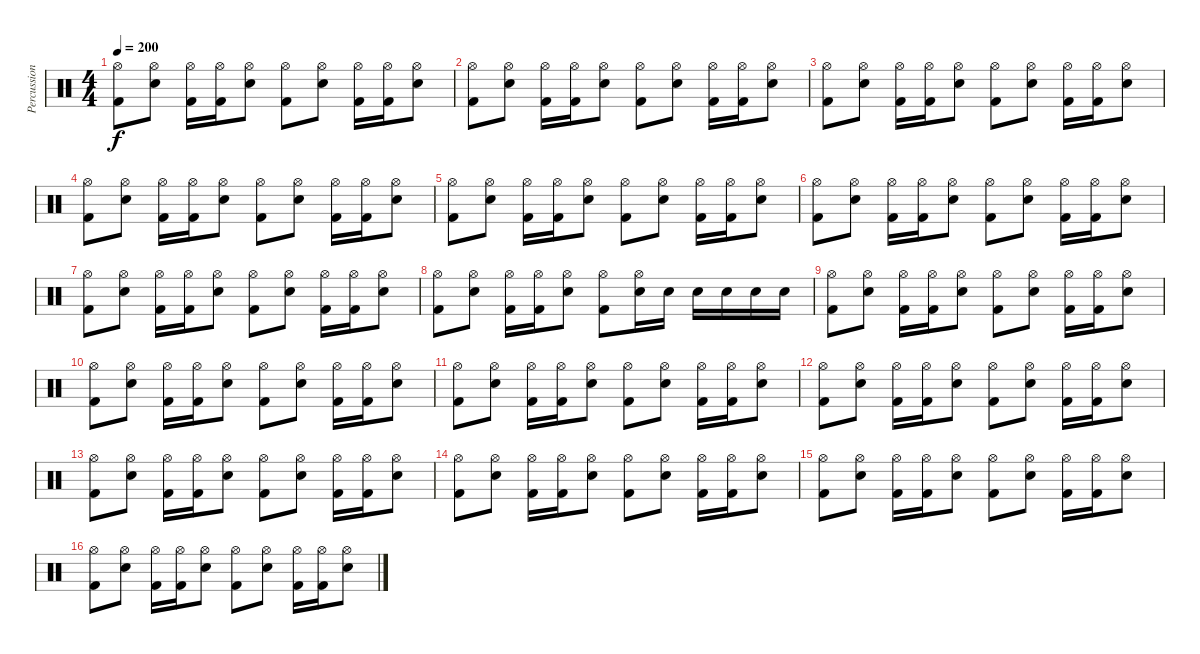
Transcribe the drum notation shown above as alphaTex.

\track ("Percussions" "Percussion") {instrument percussion}
\staff {score}
\articulation defaults
\ts (4 4)
\tempo 200
\clef neutral
\ks c
("Hi-Hat (open)" "Kick (hit) 2").8{dy f} ("Hi-Hat (open)" "Electric Snare (hit)").8 ("Hi-Hat (open)" "Kick (hit) 2").16 ("Hi-Hat (open)" "Kick (hit) 2").16 ("Hi-Hat (open)" "Electric Snare (hit)").8 ("Hi-Hat (open)" "Kick (hit) 2").8 ("Hi-Hat (open)" "Electric Snare (hit)").8 ("Hi-Hat (open)" "Kick (hit) 2").16 ("Hi-Hat (open)" "Kick (hit) 2").16 ("Hi-Hat (open)" "Electric Snare (hit)").8 |
("Hi-Hat (open)" "Kick (hit) 2").8 ("Hi-Hat (open)" "Electric Snare (hit)").8 ("Hi-Hat (open)" "Kick (hit) 2").16 ("Hi-Hat (open)" "Kick (hit) 2").16 ("Hi-Hat (open)" "Electric Snare (hit)").8 ("Hi-Hat (open)" "Kick (hit) 2").8 ("Hi-Hat (open)" "Electric Snare (hit)").8 ("Hi-Hat (open)" "Kick (hit) 2").16 ("Hi-Hat (open)" "Kick (hit) 2").16 ("Hi-Hat (open)" "Electric Snare (hit)").8 |
("Hi-Hat (open)" "Kick (hit) 2").8 ("Hi-Hat (open)" "Electric Snare (hit)").8 ("Hi-Hat (open)" "Kick (hit) 2").16 ("Hi-Hat (open)" "Kick (hit) 2").16 ("Hi-Hat (open)" "Electric Snare (hit)").8 ("Hi-Hat (open)" "Kick (hit) 2").8 ("Hi-Hat (open)" "Electric Snare (hit)").8 ("Hi-Hat (open)" "Kick (hit) 2").16 ("Hi-Hat (open)" "Kick (hit) 2").16 ("Hi-Hat (open)" "Electric Snare (hit)").8 |
("Hi-Hat (open)" "Kick (hit) 2").8 ("Hi-Hat (open)" "Electric Snare (hit)").8 ("Hi-Hat (open)" "Kick (hit) 2").16 ("Hi-Hat (open)" "Kick (hit) 2").16 ("Hi-Hat (open)" "Electric Snare (hit)").8 ("Hi-Hat (open)" "Kick (hit) 2").8 ("Hi-Hat (open)" "Electric Snare (hit)").8 ("Hi-Hat (open)" "Kick (hit) 2").16 ("Hi-Hat (open)" "Kick (hit) 2").16 ("Hi-Hat (open)" "Electric Snare (hit)").8 |
("Hi-Hat (open)" "Kick (hit) 2").8 ("Hi-Hat (open)" "Electric Snare (hit)").8 ("Hi-Hat (open)" "Kick (hit) 2").16 ("Hi-Hat (open)" "Kick (hit) 2").16 ("Hi-Hat (open)" "Electric Snare (hit)").8 ("Hi-Hat (open)" "Kick (hit) 2").8 ("Hi-Hat (open)" "Electric Snare (hit)").8 ("Hi-Hat (open)" "Kick (hit) 2").16 ("Hi-Hat (open)" "Kick (hit) 2").16 ("Hi-Hat (open)" "Electric Snare (hit)").8 |
("Hi-Hat (open)" "Kick (hit) 2").8 ("Hi-Hat (open)" "Electric Snare (hit)").8 ("Hi-Hat (open)" "Kick (hit) 2").16 ("Hi-Hat (open)" "Kick (hit) 2").16 ("Hi-Hat (open)" "Electric Snare (hit)").8 ("Hi-Hat (open)" "Kick (hit) 2").8 ("Hi-Hat (open)" "Electric Snare (hit)").8 ("Hi-Hat (open)" "Kick (hit) 2").16 ("Hi-Hat (open)" "Kick (hit) 2").16 ("Hi-Hat (open)" "Electric Snare (hit)").8 |
("Hi-Hat (open)" "Kick (hit) 2").8 ("Hi-Hat (open)" "Electric Snare (hit)").8 ("Hi-Hat (open)" "Kick (hit) 2").16 ("Hi-Hat (open)" "Kick (hit) 2").16 ("Hi-Hat (open)" "Electric Snare (hit)").8 ("Hi-Hat (open)" "Kick (hit) 2").8 ("Hi-Hat (open)" "Electric Snare (hit)").8 ("Hi-Hat (open)" "Kick (hit) 2").16 ("Hi-Hat (open)" "Kick (hit) 2").16 ("Hi-Hat (open)" "Electric Snare (hit)").8 |
("Hi-Hat (open)" "Kick (hit) 2").8 ("Hi-Hat (open)" "Electric Snare (hit)").8 ("Hi-Hat (open)" "Kick (hit) 2").16 ("Hi-Hat (open)" "Kick (hit) 2").16 ("Hi-Hat (open)" "Electric Snare (hit)").8 ("Hi-Hat (open)" "Kick (hit) 2").8 ("Hi-Hat (open)" "Electric Snare (hit)").16 "Electric Snare (hit)".16 "Electric Snare (hit)".16 "Electric Snare (hit)".16 "Electric Snare (hit)".16 "Electric Snare (hit)".16 |
("Hi-Hat (open)" "Kick (hit) 2").8 ("Hi-Hat (open)" "Electric Snare (hit)").8 ("Hi-Hat (open)" "Kick (hit) 2").16 ("Hi-Hat (open)" "Kick (hit) 2").16 ("Hi-Hat (open)" "Electric Snare (hit)").8 ("Hi-Hat (open)" "Kick (hit) 2").8 ("Hi-Hat (open)" "Electric Snare (hit)").8 ("Hi-Hat (open)" "Kick (hit) 2").16 ("Hi-Hat (open)" "Kick (hit) 2").16 ("Hi-Hat (open)" "Electric Snare (hit)").8 |
("Hi-Hat (open)" "Kick (hit) 2").8 ("Hi-Hat (open)" "Electric Snare (hit)").8 ("Hi-Hat (open)" "Kick (hit) 2").16 ("Hi-Hat (open)" "Kick (hit) 2").16 ("Hi-Hat (open)" "Electric Snare (hit)").8 ("Hi-Hat (open)" "Kick (hit) 2").8 ("Hi-Hat (open)" "Electric Snare (hit)").8 ("Hi-Hat (open)" "Kick (hit) 2").16 ("Hi-Hat (open)" "Kick (hit) 2").16 ("Hi-Hat (open)" "Electric Snare (hit)").8 |
("Hi-Hat (open)" "Kick (hit) 2").8 ("Hi-Hat (open)" "Electric Snare (hit)").8 ("Hi-Hat (open)" "Kick (hit) 2").16 ("Hi-Hat (open)" "Kick (hit) 2").16 ("Hi-Hat (open)" "Electric Snare (hit)").8 ("Hi-Hat (open)" "Kick (hit) 2").8 ("Hi-Hat (open)" "Electric Snare (hit)").8 ("Hi-Hat (open)" "Kick (hit) 2").16 ("Hi-Hat (open)" "Kick (hit) 2").16 ("Hi-Hat (open)" "Electric Snare (hit)").8 |
("Hi-Hat (open)" "Kick (hit) 2").8 ("Hi-Hat (open)" "Electric Snare (hit)").8 ("Hi-Hat (open)" "Kick (hit) 2").16 ("Hi-Hat (open)" "Kick (hit) 2").16 ("Hi-Hat (open)" "Electric Snare (hit)").8 ("Hi-Hat (open)" "Kick (hit) 2").8 ("Hi-Hat (open)" "Electric Snare (hit)").8 ("Hi-Hat (open)" "Kick (hit) 2").16 ("Hi-Hat (open)" "Kick (hit) 2").16 ("Hi-Hat (open)" "Electric Snare (hit)").8 |
("Hi-Hat (open)" "Kick (hit) 2").8 ("Hi-Hat (open)" "Electric Snare (hit)").8 ("Hi-Hat (open)" "Kick (hit) 2").16 ("Hi-Hat (open)" "Kick (hit) 2").16 ("Hi-Hat (open)" "Electric Snare (hit)").8 ("Hi-Hat (open)" "Kick (hit) 2").8 ("Hi-Hat (open)" "Electric Snare (hit)").8 ("Hi-Hat (open)" "Kick (hit) 2").16 ("Hi-Hat (open)" "Kick (hit) 2").16 ("Hi-Hat (open)" "Electric Snare (hit)").8 |
("Hi-Hat (open)" "Kick (hit) 2").8 ("Hi-Hat (open)" "Electric Snare (hit)").8 ("Hi-Hat (open)" "Kick (hit) 2").16 ("Hi-Hat (open)" "Kick (hit) 2").16 ("Hi-Hat (open)" "Electric Snare (hit)").8 ("Hi-Hat (open)" "Kick (hit) 2").8 ("Hi-Hat (open)" "Electric Snare (hit)").8 ("Hi-Hat (open)" "Kick (hit) 2").16 ("Hi-Hat (open)" "Kick (hit) 2").16 ("Hi-Hat (open)" "Electric Snare (hit)").8 |
("Hi-Hat (open)" "Kick (hit) 2").8 ("Hi-Hat (open)" "Electric Snare (hit)").8 ("Hi-Hat (open)" "Kick (hit) 2").16 ("Hi-Hat (open)" "Kick (hit) 2").16 ("Hi-Hat (open)" "Electric Snare (hit)").8 ("Hi-Hat (open)" "Kick (hit) 2").8 ("Hi-Hat (open)" "Electric Snare (hit)").8 ("Hi-Hat (open)" "Kick (hit) 2").16 ("Hi-Hat (open)" "Kick (hit) 2").16 ("Hi-Hat (open)" "Electric Snare (hit)").8 |
("Hi-Hat (open)" "Kick (hit) 2").8 ("Hi-Hat (open)" "Electric Snare (hit)").8 ("Hi-Hat (open)" "Kick (hit) 2").16 ("Hi-Hat (open)" "Kick (hit) 2").16 ("Hi-Hat (open)" "Electric Snare (hit)").8 ("Hi-Hat (open)" "Kick (hit) 2").8 ("Hi-Hat (open)" "Electric Snare (hit)").8 ("Hi-Hat (open)" "Kick (hit) 2").16 ("Hi-Hat (open)" "Kick (hit) 2").16 ("Hi-Hat (open)" "Electric Snare (hit)").8
